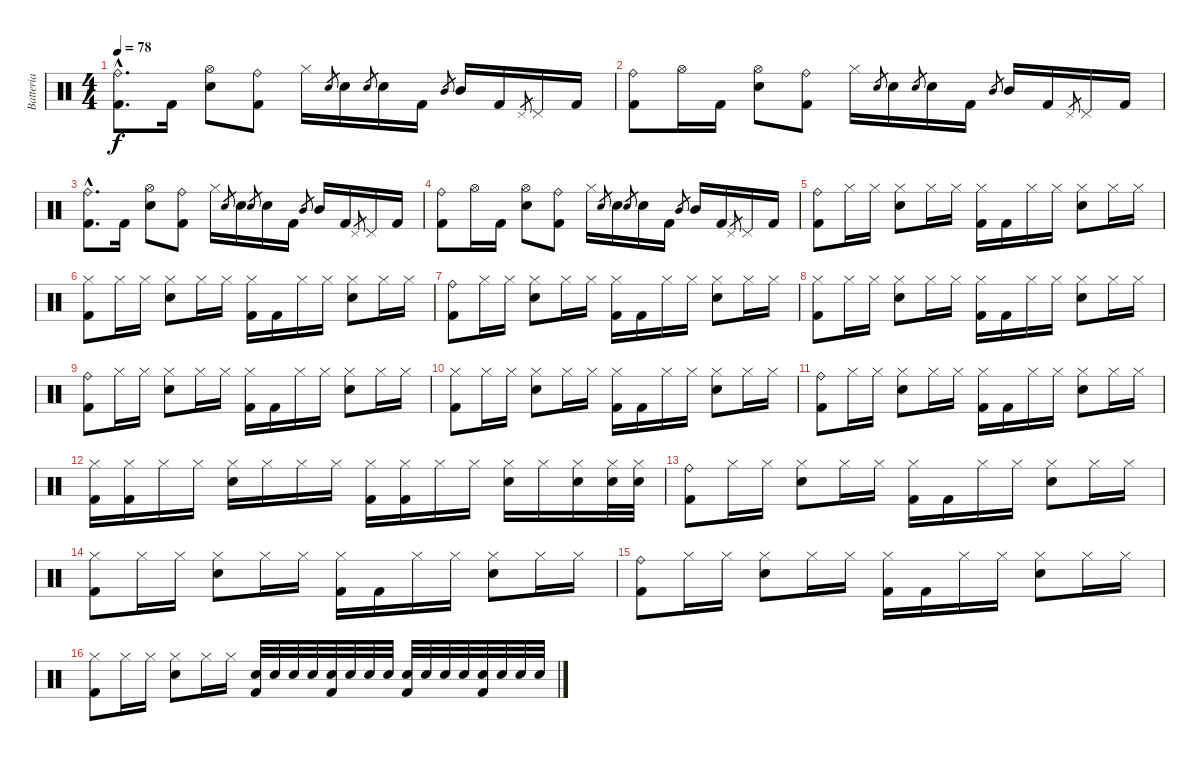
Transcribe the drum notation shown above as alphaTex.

\track ("Batteria" "Batteria") {instrument percussion}
\staff {score}
\articulation defaults
\ts (4 4)
\tempo 78
\clef neutral
\ks c
("Ride (bell)"{hac} "Kick (hit) 2"{hac}).8{d dy f} "Kick (hit) 2".16 ("Hi-Hat (open)" "Snare (hit) 2").8 ("Ride (bell)" "Kick (hit) 2").8 "Hi-Hat (closed)".16 "Snare (hit) 2".8{gr} "Snare (hit) 2".16 "Snare (hit) 2".8{gr} "Snare (hit) 2".16 "Kick (hit) 2".16 "Mid Tom (hit)".8{gr} "Mid Tom (hit)".16 "Kick (hit) 2".16 "Pedal Hi-Hat (hit)".8{gr} "Pedal Hi-Hat (hit)".16 "Kick (hit) 2".16 |
("Ride (bell)" "Kick (hit) 2").8 "Hi-Hat (open)".16 "Kick (hit) 2".16 ("Hi-Hat (open)" "Snare (hit) 2").8 ("Ride (bell)" "Kick (hit) 2").8 "Hi-Hat (closed)".16 "Snare (hit) 2".8{gr} "Snare (hit) 2".16 "Snare (hit) 2".8{gr} "Snare (hit) 2".16 "Kick (hit) 2".16 "Mid Tom (hit)".8{gr} "Mid Tom (hit)".16 "Kick (hit) 2".16 "Pedal Hi-Hat (hit)".8{gr} "Pedal Hi-Hat (hit)".16 "Kick (hit) 2".16 |
("Ride (bell)"{hac} "Kick (hit) 2"{hac}).8{d} "Kick (hit) 2".16 ("Hi-Hat (open)" "Snare (hit) 2").8 ("Ride (bell)" "Kick (hit) 2").8 "Hi-Hat (closed)".16 "Snare (hit) 2".8{gr} "Snare (hit) 2".16 "Snare (hit) 2".8{gr} "Snare (hit) 2".16 "Kick (hit) 2".16 "Mid Tom (hit)".8{gr} "Mid Tom (hit)".16 "Kick (hit) 2".16 "Pedal Hi-Hat (hit)".8{gr} "Pedal Hi-Hat (hit)".16 "Kick (hit) 2".16 |
("Ride (bell)" "Kick (hit) 2").8 "Hi-Hat (open)".16 "Kick (hit) 2".16 ("Hi-Hat (open)" "Snare (hit) 2").8 ("Ride (bell)" "Kick (hit) 2").8 "Hi-Hat (closed)".16 "Snare (hit) 2".8{gr} "Snare (hit) 2".16 "Snare (hit) 2".8{gr} "Snare (hit) 2".16 "Kick (hit) 2".16 "Mid Tom (hit)".8{gr} "Mid Tom (hit)".16 "Kick (hit) 2".16 "Pedal Hi-Hat (hit)".8{gr} "Pedal Hi-Hat (hit)".16 "Kick (hit) 2".16 |
("Ride (bell)" "Kick (hit) 2").8 "Hi-Hat (closed)".16 "Hi-Hat (closed)".16 ("Hi-Hat (closed)" "Snare (hit) 2").8 "Hi-Hat (closed)".16 "Hi-Hat (closed)".16 ("Hi-Hat (closed)" "Kick (hit) 2").16 "Kick (hit) 2".16 "Hi-Hat (closed)".16 "Hi-Hat (closed)".16 ("Hi-Hat (closed)" "Snare (hit) 2").8 "Hi-Hat (closed)".16 "Hi-Hat (closed)".16 |
("Hi-Hat (closed)" "Kick (hit) 2").8 "Hi-Hat (closed)".16 "Hi-Hat (closed)".16 ("Hi-Hat (closed)" "Snare (hit) 2").8 "Hi-Hat (closed)".16 "Hi-Hat (closed)".16 ("Hi-Hat (closed)" "Kick (hit) 2").16 "Kick (hit) 2".16 "Hi-Hat (closed)".16 "Hi-Hat (closed)".16 ("Hi-Hat (closed)" "Snare (hit) 2").8 "Hi-Hat (closed)".16 "Hi-Hat (closed)".16 |
("Ride (bell)" "Kick (hit) 2").8 "Hi-Hat (closed)".16 "Hi-Hat (closed)".16 ("Hi-Hat (closed)" "Snare (hit) 2").8 "Hi-Hat (closed)".16 "Hi-Hat (closed)".16 ("Hi-Hat (closed)" "Kick (hit) 2").16 "Kick (hit) 2".16 "Hi-Hat (closed)".16 "Hi-Hat (closed)".16 ("Hi-Hat (closed)" "Snare (hit) 2").8 "Hi-Hat (closed)".16 "Hi-Hat (closed)".16 |
("Hi-Hat (closed)" "Kick (hit) 2").8 "Hi-Hat (closed)".16 "Hi-Hat (closed)".16 ("Hi-Hat (closed)" "Snare (hit) 2").8 "Hi-Hat (closed)".16 "Hi-Hat (closed)".16 ("Hi-Hat (closed)" "Kick (hit) 2").16 "Kick (hit) 2".16 "Hi-Hat (closed)".16 "Hi-Hat (closed)".16 ("Hi-Hat (closed)" "Snare (hit) 2").8 "Hi-Hat (closed)".16 "Hi-Hat (closed)".16 |
("Ride (bell)" "Kick (hit) 2").8 "Hi-Hat (closed)".16 "Hi-Hat (closed)".16 ("Hi-Hat (closed)" "Snare (hit) 2").8 "Hi-Hat (closed)".16 "Hi-Hat (closed)".16 ("Hi-Hat (closed)" "Kick (hit) 2").16 "Kick (hit) 2".16 "Hi-Hat (closed)".16 "Hi-Hat (closed)".16 ("Hi-Hat (closed)" "Snare (hit) 2").8 "Hi-Hat (closed)".16 "Hi-Hat (closed)".16 |
("Hi-Hat (closed)" "Kick (hit) 2").8 "Hi-Hat (closed)".16 "Hi-Hat (closed)".16 ("Hi-Hat (closed)" "Snare (hit) 2").8 "Hi-Hat (closed)".16 "Hi-Hat (closed)".16 ("Hi-Hat (closed)" "Kick (hit) 2").16 "Kick (hit) 2".16 "Hi-Hat (closed)".16 "Hi-Hat (closed)".16 ("Hi-Hat (closed)" "Snare (hit) 2").8 "Hi-Hat (closed)".16 "Hi-Hat (closed)".16 |
("Ride (bell)" "Kick (hit) 2").8 "Hi-Hat (closed)".16 "Hi-Hat (closed)".16 ("Hi-Hat (closed)" "Snare (hit) 2").8 "Hi-Hat (closed)".16 "Hi-Hat (closed)".16 ("Hi-Hat (closed)" "Kick (hit) 2").16 "Kick (hit) 2".16 "Hi-Hat (closed)".16 "Hi-Hat (closed)".16 ("Hi-Hat (closed)" "Snare (hit) 2").8 "Hi-Hat (closed)".16 "Hi-Hat (closed)".16 |
("Hi-Hat (closed)" "Kick (hit) 2").16 ("Hi-Hat (closed)" "Kick (hit) 2").16 "Hi-Hat (closed)".16 "Hi-Hat (closed)".16 ("Hi-Hat (closed)" "Snare (hit) 2").16 "Hi-Hat (closed)".16 "Hi-Hat (closed)".16 "Hi-Hat (closed)".16 ("Hi-Hat (closed)" "Kick (hit) 2").16 ("Hi-Hat (closed)" "Kick (hit) 2").16 "Hi-Hat (closed)".16 "Hi-Hat (closed)".16 ("Hi-Hat (closed)" "Snare (hit) 2").16 "Hi-Hat (closed)".16 ("Hi-Hat (closed)" "Snare (hit) 2").16 ("Hi-Hat (closed)" "Snare (hit) 2").32 ("Hi-Hat (closed)" "Snare (hit) 2").32 |
("Ride (bell)" "Kick (hit) 2").8 "Hi-Hat (closed)".16 "Hi-Hat (closed)".16 ("Hi-Hat (closed)" "Snare (hit) 2").8 "Hi-Hat (closed)".16 "Hi-Hat (closed)".16 ("Hi-Hat (closed)" "Kick (hit) 2").16 "Kick (hit) 2".16 "Hi-Hat (closed)".16 "Hi-Hat (closed)".16 ("Hi-Hat (closed)" "Snare (hit) 2").8 "Hi-Hat (closed)".16 "Hi-Hat (closed)".16 |
("Hi-Hat (closed)" "Kick (hit) 2").8 "Hi-Hat (closed)".16 "Hi-Hat (closed)".16 ("Hi-Hat (closed)" "Snare (hit) 2").8 "Hi-Hat (closed)".16 "Hi-Hat (closed)".16 ("Hi-Hat (closed)" "Kick (hit) 2").16 "Kick (hit) 2".16 "Hi-Hat (closed)".16 "Hi-Hat (closed)".16 ("Hi-Hat (closed)" "Snare (hit) 2").8 "Hi-Hat (closed)".16 "Hi-Hat (closed)".16 |
("Ride (bell)" "Kick (hit) 2").8 "Hi-Hat (closed)".16 "Hi-Hat (closed)".16 ("Hi-Hat (closed)" "Snare (hit) 2").8 "Hi-Hat (closed)".16 "Hi-Hat (closed)".16 ("Hi-Hat (closed)" "Kick (hit) 2").16 "Kick (hit) 2".16 "Hi-Hat (closed)".16 "Hi-Hat (closed)".16 ("Hi-Hat (closed)" "Snare (hit) 2").8 "Hi-Hat (closed)".16 "Hi-Hat (closed)".16 |
("Hi-Hat (closed)" "Kick (hit) 2").8 "Hi-Hat (closed)".16 "Hi-Hat (closed)".16 ("Hi-Hat (closed)" "Snare (hit) 2").8 "Hi-Hat (closed)".16 "Hi-Hat (closed)".16 ("Snare (hit) 2" "Kick (hit) 2").32 "Snare (hit) 2".32 "Snare (hit) 2".32 "Snare (hit) 2".32 ("Snare (hit) 2" "Kick (hit) 2").32 "Snare (hit) 2".32 "Snare (hit) 2".32 "Snare (hit) 2".32 ("Snare (hit) 2" "Kick (hit) 2").32 "Snare (hit) 2".32 "Snare (hit) 2".32 "Snare (hit) 2".32 ("Snare (hit) 2" "Kick (hit) 2").32 "Snare (hit) 2".32 "Snare (hit) 2".32 "Snare (hit) 2".32
